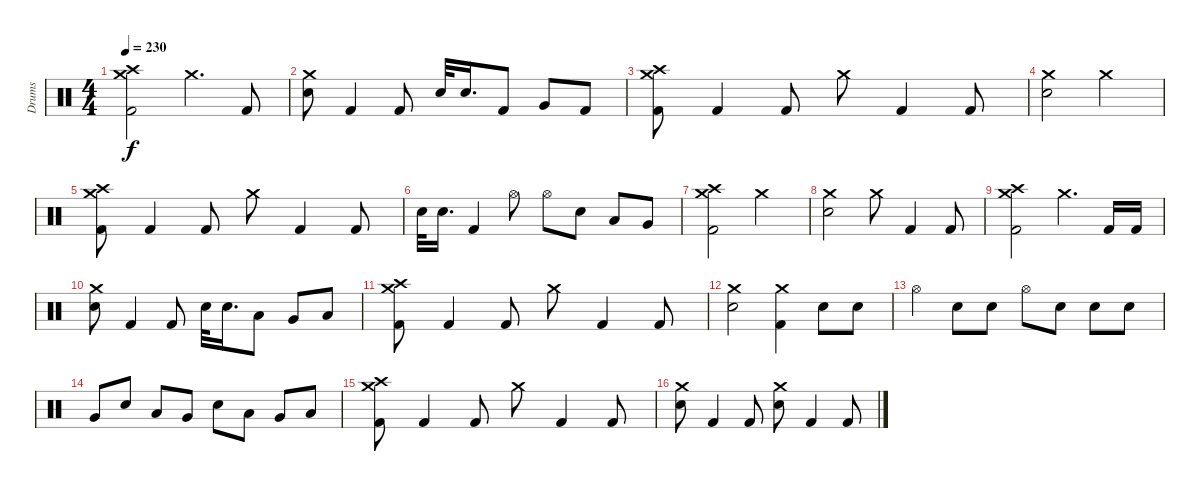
\track ("Drums" "Drums") {instrument percussion}
\staff {score}
\articulation defaults
\ts (4 4)
\tempo 230
\clef neutral
\ks c
("Crash medium (hit)" "Crash high (hit)" "Kick (hit) 2").2{dy f} "Crash medium (hit)".4{d} "Kick (hit) 2".8 |
("Crash medium (hit)" "Electric Snare (hit)").8 "Kick (hit) 2".4 "Kick (hit) 2".8 "Electric Snare (hit)".32 "Electric Snare (hit)".16{d} "Kick (hit) 2".8 "Very Low Tom (hit)".8 "Kick (hit) 2".8 |
("Crash medium (hit)" "Crash high (hit)" "Kick (hit) 2").8 "Kick (hit) 2".4 "Kick (hit) 2".8 "Crash medium (hit)".8 "Kick (hit) 2".4 "Kick (hit) 2".8 |
("Crash medium (hit)" "Electric Snare (hit)").2 "Crash medium (hit)".2 |
("Crash medium (hit)" "Crash high (hit)" "Kick (hit) 2").8 "Kick (hit) 2".4 "Kick (hit) 2".8 "Crash medium (hit)".8 "Kick (hit) 2".4 "Kick (hit) 2".8 |
"Electric Snare (hit)".32 "Electric Snare (hit)".16{d} "Kick (hit) 2".4 "Hi-Hat (open)".8 "Hi-Hat (open)".8 "Electric Snare (hit)".8 "Low Tom (hit)".8 "Very Low Tom (hit)".8 |
("Crash medium (hit)" "Crash high (hit)" "Kick (hit) 2").2 "Crash medium (hit)".2 |
("Crash medium (hit)" "Electric Snare (hit)").2 "Crash medium (hit)".8 "Kick (hit) 2".4 "Kick (hit) 2".8 |
("Crash medium (hit)" "Crash high (hit)" "Kick (hit) 2").2 "Crash medium (hit)".4{d} "Kick (hit) 2".16 "Kick (hit) 2".16 |
("Crash medium (hit)" "Electric Snare (hit)").8 "Kick (hit) 2".4 "Kick (hit) 2".8 "Electric Snare (hit)".32 "Electric Snare (hit)".16{d} "Low Tom (hit)".8 "Very Low Tom (hit)".8 "Low Floor Tom (hit)".8 |
("Crash medium (hit)" "Crash high (hit)" "Kick (hit) 2").8 "Kick (hit) 2".4 "Kick (hit) 2".8 "Crash medium (hit)".8 "Kick (hit) 2".4 "Kick (hit) 2".8 |
("Crash medium (hit)" "Electric Snare (hit)").2 ("Crash medium (hit)" "Kick (hit) 2").4 "Electric Snare (hit)".8 "Electric Snare (hit)".8 |
"Hi-Hat (open)".4 "Electric Snare (hit)".8 "Electric Snare (hit)".8 "Hi-Hat (open)".8 "Electric Snare (hit)".8 "Electric Snare (hit)".8 "Electric Snare (hit)".8 |
"Very Low Tom (hit)".8 "Electric Snare (hit)".8 "Low Tom (hit)".8 "Very Low Tom (hit)".8 "Electric Snare (hit)".8 "Low Tom (hit)".8 "Very Low Tom (hit)".8 "Low Floor Tom (hit)".8 |
("Crash medium (hit)" "Crash high (hit)" "Kick (hit) 2").8 "Kick (hit) 2".4 "Kick (hit) 2".8 "Crash medium (hit)".8 "Kick (hit) 2".4 "Kick (hit) 2".8 |
("Crash medium (hit)" "Electric Snare (hit)").8 "Kick (hit) 2".4 "Kick (hit) 2".8 ("Crash medium (hit)" "Electric Snare (hit)").8 "Kick (hit) 2".4 "Kick (hit) 2".8
